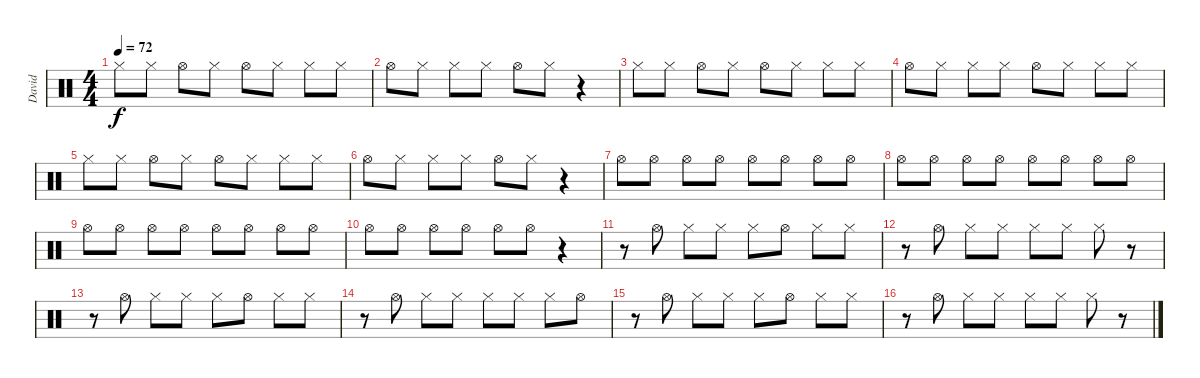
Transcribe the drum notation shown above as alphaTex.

\track ("David" "David") {instrument percussion}
\staff {score}
\articulation defaults
\ts (4 4)
\tempo 72
\clef neutral
\ks c "Hi-Hat (closed)".8{dy f} "Hi-Hat (closed)".8 "Hi-Hat (open)".8 "Hi-Hat (closed)".8 "Hi-Hat (open)".8 "Hi-Hat (closed)".8 "Hi-Hat (closed)".8 "Hi-Hat (closed)".8
|
"Hi-Hat (open)".8 "Hi-Hat (closed)".8 "Hi-Hat (closed)".8 "Hi-Hat (closed)".8 "Hi-Hat (open)".8 "Hi-Hat (closed)".8 r.4 |
"Hi-Hat (closed)".8 "Hi-Hat (closed)".8 "Hi-Hat (open)".8 "Hi-Hat (closed)".8 "Hi-Hat (open)".8 "Hi-Hat (closed)".8 "Hi-Hat (closed)".8 "Hi-Hat (closed)".8 |
"Hi-Hat (open)".8 "Hi-Hat (closed)".8 "Hi-Hat (closed)".8 "Hi-Hat (closed)".8 "Hi-Hat (open)".8 "Hi-Hat (closed)".8 "Hi-Hat (closed)".8 "Hi-Hat (closed)".8 |
"Hi-Hat (closed)".8 "Hi-Hat (closed)".8 "Hi-Hat (open)".8 "Hi-Hat (closed)".8 "Hi-Hat (open)".8 "Hi-Hat (closed)".8 "Hi-Hat (closed)".8 "Hi-Hat (closed)".8 |
"Hi-Hat (open)".8 "Hi-Hat (closed)".8 "Hi-Hat (closed)".8 "Hi-Hat (closed)".8 "Hi-Hat (open)".8 "Hi-Hat (closed)".8 r.4 |
"Hi-Hat (open)".8 "Hi-Hat (open)".8 "Hi-Hat (open)".8 "Hi-Hat (open)".8 "Hi-Hat (open)".8 "Hi-Hat (open)".8 "Hi-Hat (open)".8 "Hi-Hat (open)".8 |
"Hi-Hat (open)".8 "Hi-Hat (open)".8 "Hi-Hat (open)".8 "Hi-Hat (open)".8 "Hi-Hat (open)".8 "Hi-Hat (open)".8 "Hi-Hat (open)".8 "Hi-Hat (open)".8 |
"Hi-Hat (open)".8 "Hi-Hat (open)".8 "Hi-Hat (open)".8 "Hi-Hat (open)".8 "Hi-Hat (open)".8 "Hi-Hat (open)".8 "Hi-Hat (open)".8 "Hi-Hat (open)".8 |
"Hi-Hat (open)".8 "Hi-Hat (open)".8 "Hi-Hat (open)".8 "Hi-Hat (open)".8 "Hi-Hat (open)".8 "Hi-Hat (open)".8 r.4 |
r.8 "Hi-Hat (open)".8 "Hi-Hat (closed)".8 "Hi-Hat (closed)".8 "Hi-Hat (closed)".8 "Hi-Hat (open)".8 "Hi-Hat (closed)".8 "Hi-Hat (closed)".8 |
r.8 "Hi-Hat (open)".8 "Hi-Hat (closed)".8 "Hi-Hat (closed)".8 "Hi-Hat (closed)".8 "Hi-Hat (closed)".8 "Hi-Hat (closed)".8 r.8 |
r.8 "Hi-Hat (open)".8 "Hi-Hat (closed)".8 "Hi-Hat (closed)".8 "Hi-Hat (closed)".8 "Hi-Hat (open)".8 "Hi-Hat (closed)".8 "Hi-Hat (closed)".8 |
r.8 "Hi-Hat (open)".8 "Hi-Hat (closed)".8 "Hi-Hat (closed)".8 "Hi-Hat (closed)".8 "Hi-Hat (closed)".8 "Hi-Hat (closed)".8 "Hi-Hat (open)".8 |
r.8 "Hi-Hat (open)".8 "Hi-Hat (closed)".8 "Hi-Hat (closed)".8 "Hi-Hat (closed)".8 "Hi-Hat (open)".8 "Hi-Hat (closed)".8 "Hi-Hat (closed)".8 |
r.8 "Hi-Hat (open)".8 "Hi-Hat (closed)".8 "Hi-Hat (closed)".8 "Hi-Hat (closed)".8 "Hi-Hat (closed)".8 "Hi-Hat (closed)".8 r.8
